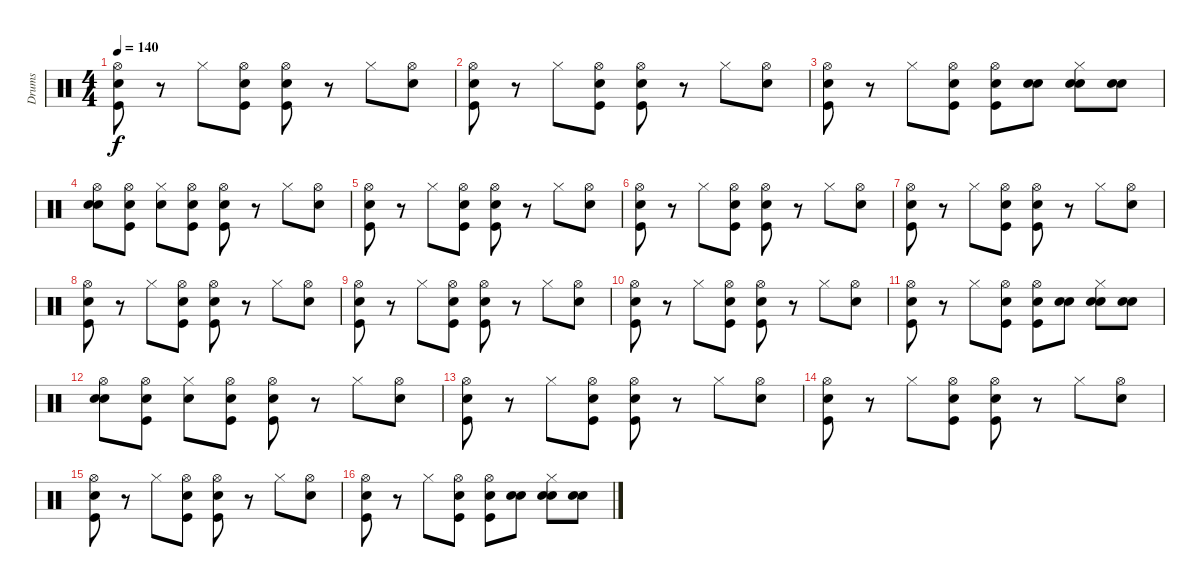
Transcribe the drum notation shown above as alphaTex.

\track ("Drums" "Drums") {instrument percussion}
\staff {score}
\articulation defaults
\ts (4 4)
\tempo 140
\clef neutral
\ks c
("Snare (hit)" "Kick (hit)" "Hi-Hat (open)").8{dy f} r.8 "Hi-Hat (closed)".8 ("Snare (hit)" "Kick (hit)" "Hi-Hat (open)").8 ("Snare (hit)" "Kick (hit)" "Hi-Hat (open)").8 r.8 "Hi-Hat (closed)".8 ("Snare (hit)" "Hi-Hat (open)").8 |
("Snare (hit)" "Kick (hit)" "Hi-Hat (open)").8 r.8 "Hi-Hat (closed)".8 ("Snare (hit)" "Kick (hit)" "Hi-Hat (open)").8 ("Snare (hit)" "Kick (hit)" "Hi-Hat (open)").8 r.8 "Hi-Hat (closed)".8 ("Snare (hit)" "Hi-Hat (open)").8 |
("Snare (hit)" "Kick (hit)" "Hi-Hat (open)").8 r.8 "Hi-Hat (closed)".8 ("Snare (hit)" "Kick (hit)" "Hi-Hat (open)").8 ("Snare (hit)" "Kick (hit)" "Hi-Hat (open)").8 ("Snare (hit)" "Snare (hit) 2").8 ("Snare (hit)" "Snare (hit) 2" "Hi-Hat (closed)").8 ("Snare (hit)" "Snare (hit) 2").8 |
("Snare (hit)" "Snare (hit) 2" "Hi-Hat (open)").8 ("Snare (hit)" "Kick (hit)" "Hi-Hat (open)").8 ("Snare (hit)" "Hi-Hat (closed)").8 ("Snare (hit)" "Kick (hit)" "Hi-Hat (open)").8 ("Snare (hit)" "Kick (hit)" "Hi-Hat (open)").8 r.8 "Hi-Hat (closed)".8 ("Snare (hit)" "Hi-Hat (open)").8 |
("Snare (hit)" "Kick (hit)" "Hi-Hat (open)").8 r.8 "Hi-Hat (closed)".8 ("Snare (hit)" "Kick (hit)" "Hi-Hat (open)").8 ("Snare (hit)" "Kick (hit)" "Hi-Hat (open)").8 r.8 "Hi-Hat (closed)".8 ("Snare (hit)" "Hi-Hat (open)").8 |
("Snare (hit)" "Kick (hit)" "Hi-Hat (open)").8 r.8 "Hi-Hat (closed)".8 ("Snare (hit)" "Kick (hit)" "Hi-Hat (open)").8 ("Snare (hit)" "Kick (hit)" "Hi-Hat (open)").8 r.8 "Hi-Hat (closed)".8 ("Snare (hit)" "Hi-Hat (open)").8 |
("Snare (hit)" "Kick (hit)" "Hi-Hat (open)").8 r.8 "Hi-Hat (closed)".8 ("Snare (hit)" "Kick (hit)" "Hi-Hat (open)").8 ("Snare (hit)" "Kick (hit)" "Hi-Hat (open)").8 r.8 "Hi-Hat (closed)".8 ("Snare (hit)" "Hi-Hat (open)").8 |
("Snare (hit)" "Kick (hit)" "Hi-Hat (open)").8 r.8 "Hi-Hat (closed)".8 ("Snare (hit)" "Kick (hit)" "Hi-Hat (open)").8 ("Snare (hit)" "Kick (hit)" "Hi-Hat (open)").8 r.8 "Hi-Hat (closed)".8 ("Snare (hit)" "Hi-Hat (open)").8 |
("Snare (hit)" "Kick (hit)" "Hi-Hat (open)").8 r.8 "Hi-Hat (closed)".8 ("Snare (hit)" "Kick (hit)" "Hi-Hat (open)").8 ("Snare (hit)" "Kick (hit)" "Hi-Hat (open)").8 r.8 "Hi-Hat (closed)".8 ("Snare (hit)" "Hi-Hat (open)").8 |
("Snare (hit)" "Kick (hit)" "Hi-Hat (open)").8 r.8 "Hi-Hat (closed)".8 ("Snare (hit)" "Kick (hit)" "Hi-Hat (open)").8 ("Snare (hit)" "Kick (hit)" "Hi-Hat (open)").8 r.8 "Hi-Hat (closed)".8 ("Snare (hit)" "Hi-Hat (open)").8 |
("Snare (hit)" "Kick (hit)" "Hi-Hat (open)").8 r.8 "Hi-Hat (closed)".8 ("Snare (hit)" "Kick (hit)" "Hi-Hat (open)").8 ("Snare (hit)" "Kick (hit)" "Hi-Hat (open)").8 ("Snare (hit)" "Snare (hit) 2").8 ("Snare (hit)" "Snare (hit) 2" "Hi-Hat (closed)").8 ("Snare (hit)" "Snare (hit) 2").8 |
("Snare (hit)" "Snare (hit) 2" "Hi-Hat (open)").8 ("Snare (hit)" "Kick (hit)" "Hi-Hat (open)").8 ("Snare (hit)" "Hi-Hat (closed)").8 ("Snare (hit)" "Kick (hit)" "Hi-Hat (open)").8 ("Snare (hit)" "Kick (hit)" "Hi-Hat (open)").8 r.8 "Hi-Hat (closed)".8 ("Snare (hit)" "Hi-Hat (open)").8 |
("Snare (hit)" "Kick (hit)" "Hi-Hat (open)").8 r.8 "Hi-Hat (closed)".8 ("Snare (hit)" "Kick (hit)" "Hi-Hat (open)").8 ("Snare (hit)" "Kick (hit)" "Hi-Hat (open)").8 r.8 "Hi-Hat (closed)".8 ("Snare (hit)" "Hi-Hat (open)").8 |
("Snare (hit)" "Kick (hit)" "Hi-Hat (open)").8 r.8 "Hi-Hat (closed)".8 ("Snare (hit)" "Kick (hit)" "Hi-Hat (open)").8 ("Snare (hit)" "Kick (hit)" "Hi-Hat (open)").8 r.8 "Hi-Hat (closed)".8 ("Snare (hit)" "Hi-Hat (open)").8 |
("Snare (hit)" "Kick (hit)" "Hi-Hat (open)").8 r.8 "Hi-Hat (closed)".8 ("Snare (hit)" "Kick (hit)" "Hi-Hat (open)").8 ("Snare (hit)" "Kick (hit)" "Hi-Hat (open)").8 r.8 "Hi-Hat (closed)".8 ("Snare (hit)" "Hi-Hat (open)").8 |
("Snare (hit)" "Kick (hit)" "Hi-Hat (open)").8 r.8 "Hi-Hat (closed)".8 ("Snare (hit)" "Kick (hit)" "Hi-Hat (open)").8 ("Snare (hit)" "Kick (hit)" "Hi-Hat (open)").8 ("Snare (hit)" "Snare (hit) 2").8 ("Snare (hit)" "Snare (hit) 2" "Hi-Hat (closed)").8 ("Snare (hit)" "Snare (hit) 2").8
